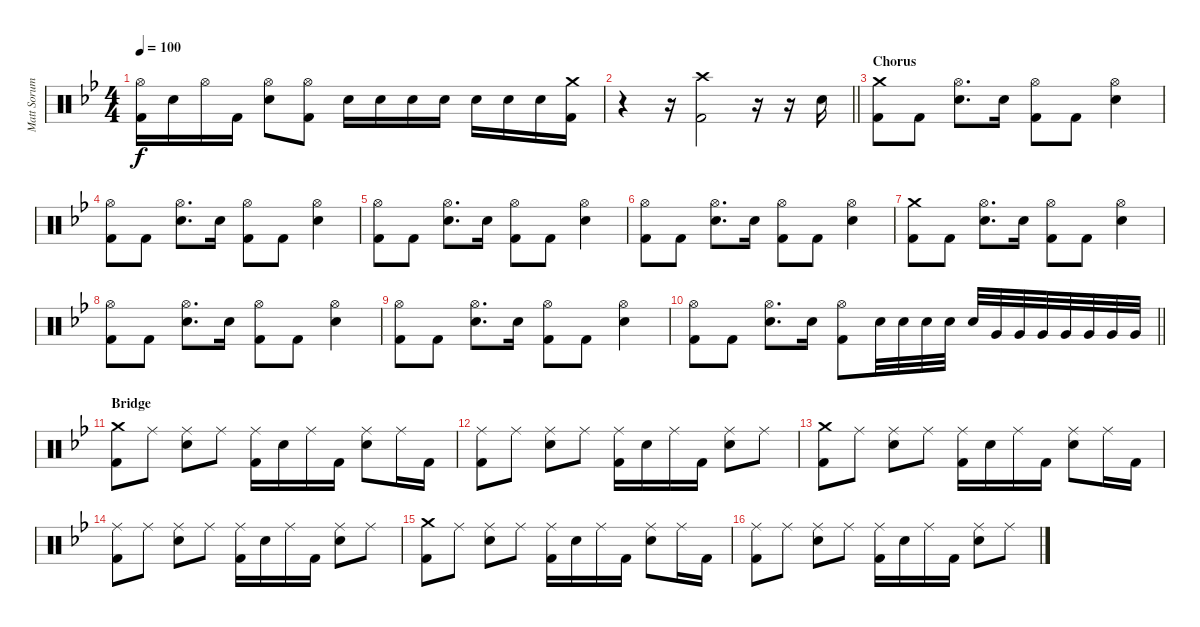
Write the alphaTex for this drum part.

\track ("Matt Sorum" "Matt Sorum") {instrument percussion}
\staff {score}
\articulation defaults
\ts (4 4)
\tempo 100
\clef neutral
\ks bb
("Hi-Hat (open)" "Kick (hit) 2").16{dy f} "Electric Snare (hit)".16 "Hi-Hat (open)".16 "Kick (hit) 2".16 ("Hi-Hat (open)" "Electric Snare (hit)").8 ("Hi-Hat (open)" "Kick (hit) 2").8 "Electric Snare (hit)".16 "Electric Snare (hit)".16 "Electric Snare (hit)".16 "Electric Snare (hit)".16 "Electric Snare (hit)".16 "Electric Snare (hit)".16 "Electric Snare (hit)".16 ("Crash medium (hit)" "Kick (hit) 2").16 |
\barLineRight lightlight
r.4 r.16 ("Crash high (hit)" "Kick (hit) 2").2 r.16 r.16 "Electric Snare (hit)".16 |
\section ("" "Chorus")
("Crash medium (hit)" "Kick (hit) 2").8 "Kick (hit) 2".8 ("Hi-Hat (open)" "Electric Snare (hit)").8{d} "Electric Snare (hit)".16 ("Hi-Hat (open)" "Kick (hit) 2").8 "Kick (hit) 2".8 ("Hi-Hat (open)" "Electric Snare (hit)").4 |
("Hi-Hat (open)" "Kick (hit) 2").8 "Kick (hit) 2".8 ("Hi-Hat (open)" "Electric Snare (hit)").8{d} "Electric Snare (hit)".16 ("Hi-Hat (open)" "Kick (hit) 2").8 "Kick (hit) 2".8 ("Hi-Hat (open)" "Electric Snare (hit)").4 |
("Hi-Hat (open)" "Kick (hit) 2").8 "Kick (hit) 2".8 ("Hi-Hat (open)" "Electric Snare (hit)").8{d} "Electric Snare (hit)".16 ("Hi-Hat (open)" "Kick (hit) 2").8 "Kick (hit) 2".8 ("Hi-Hat (open)" "Electric Snare (hit)").4 |
("Hi-Hat (open)" "Kick (hit) 2").8 "Kick (hit) 2".8 ("Hi-Hat (open)" "Electric Snare (hit)").8{d} "Electric Snare (hit)".16 ("Hi-Hat (open)" "Kick (hit) 2").8 "Kick (hit) 2".8 ("Hi-Hat (open)" "Electric Snare (hit)").4 |
("Crash medium (hit)" "Kick (hit) 2").8 "Kick (hit) 2".8 ("Hi-Hat (open)" "Electric Snare (hit)").8{d} "Electric Snare (hit)".16 ("Hi-Hat (open)" "Kick (hit) 2").8 "Kick (hit) 2".8 ("Hi-Hat (open)" "Electric Snare (hit)").4 |
("Hi-Hat (open)" "Kick (hit) 2").8 "Kick (hit) 2".8 ("Hi-Hat (open)" "Electric Snare (hit)").8{d} "Electric Snare (hit)".16 ("Hi-Hat (open)" "Kick (hit) 2").8 "Kick (hit) 2".8 ("Hi-Hat (open)" "Electric Snare (hit)").4 |
("Hi-Hat (open)" "Kick (hit) 2").8 "Kick (hit) 2".8 ("Hi-Hat (open)" "Electric Snare (hit)").8{d} "Electric Snare (hit)".16 ("Hi-Hat (open)" "Kick (hit) 2").8 "Kick (hit) 2".8 ("Hi-Hat (open)" "Electric Snare (hit)").4 |
\barLineRight lightlight
("Hi-Hat (open)" "Kick (hit) 2").8 "Kick (hit) 2".8 ("Hi-Hat (open)" "Electric Snare (hit)").8{d} "Electric Snare (hit)".16 ("Hi-Hat (open)" "Kick (hit) 2").8 "Electric Snare (hit)".32 "Electric Snare (hit)".32 "Electric Snare (hit)".32 "Electric Snare (hit)".32 "Electric Snare (hit)".32 "Very Low Tom (hit)".32 "Very Low Tom (hit)".32 "Very Low Tom (hit)".32 "Very Low Tom (hit)".32 "Very Low Tom (hit)".32 "Very Low Tom (hit)".32 "Very Low Tom (hit)".32 |
\section ("" "Bridge")
("Crash medium (hit)" "Kick (hit) 2").8 "Ride (middle)".8 ("Ride (middle)" "Electric Snare (hit)").8 "Ride (middle)".8 ("Ride (middle)" "Kick (hit) 2").16 "Electric Snare (hit)".16 "Ride (middle)".16 "Kick (hit) 2".16 ("Ride (middle)" "Electric Snare (hit)").8 "Ride (middle)".16 "Kick (hit) 2".16 |
("Ride (middle)" "Kick (hit) 2").8 "Ride (middle)".8 ("Ride (middle)" "Electric Snare (hit)").8 "Ride (middle)".8 ("Ride (middle)" "Kick (hit) 2").16 "Electric Snare (hit)".16 "Ride (middle)".16 "Kick (hit) 2".16 ("Ride (middle)" "Electric Snare (hit)").8 "Ride (middle)".8 |
("Crash medium (hit)" "Kick (hit) 2").8 "Ride (middle)".8 ("Ride (middle)" "Electric Snare (hit)").8 "Ride (middle)".8 ("Ride (middle)" "Kick (hit) 2").16 "Electric Snare (hit)".16 "Ride (middle)".16 "Kick (hit) 2".16 ("Ride (middle)" "Electric Snare (hit)").8 "Ride (middle)".16 "Kick (hit) 2".16 |
("Ride (middle)" "Kick (hit) 2").8 "Ride (middle)".8 ("Ride (middle)" "Electric Snare (hit)").8 "Ride (middle)".8 ("Ride (middle)" "Kick (hit) 2").16 "Electric Snare (hit)".16 "Ride (middle)".16 "Kick (hit) 2".16 ("Ride (middle)" "Electric Snare (hit)").8 "Ride (middle)".8 |
("Crash medium (hit)" "Kick (hit) 2").8 "Ride (middle)".8 ("Ride (middle)" "Electric Snare (hit)").8 "Ride (middle)".8 ("Ride (middle)" "Kick (hit) 2").16 "Electric Snare (hit)".16 "Ride (middle)".16 "Kick (hit) 2".16 ("Ride (middle)" "Electric Snare (hit)").8 "Ride (middle)".16 "Kick (hit) 2".16 |
("Ride (middle)" "Kick (hit) 2").8 "Ride (middle)".8 ("Ride (middle)" "Electric Snare (hit)").8 "Ride (middle)".8 ("Ride (middle)" "Kick (hit) 2").16 "Electric Snare (hit)".16 "Ride (middle)".16 "Kick (hit) 2".16 ("Ride (middle)" "Electric Snare (hit)").8 "Ride (middle)".8
